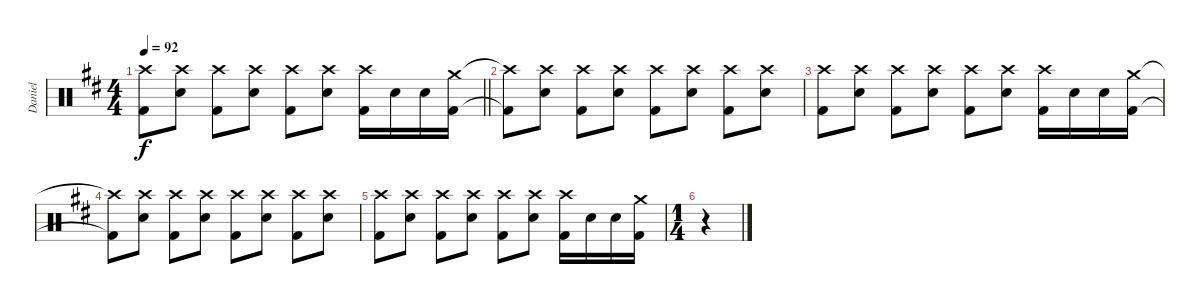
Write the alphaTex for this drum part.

\track ("Daniel" "Daniel") {instrument percussion}
\staff {score}
\articulation defaults
\ts (4 4)
\tempo 92
\clef neutral
\barLineRight lightlight
\ks bminor
("Crash high (hit)" "Kick (hit) 2").8{dy f} ("Crash high (hit)" "Electric Snare (hit)").8 ("Crash high (hit)" "Kick (hit) 2").8 ("Crash high (hit)" "Electric Snare (hit)").8 ("Crash high (hit)" "Kick (hit) 2").8 ("Crash high (hit)" "Electric Snare (hit)").8 ("Crash high (hit)" "Kick (hit) 2").16 "Electric Snare (hit)".16 "Electric Snare (hit)".16 ("Crash medium (hit)" "Kick (hit) 2").16 |
("Crash high (hit)"{t} "Kick (hit) 2"{t}).8 ("Crash high (hit)" "Electric Snare (hit)").8 ("Crash high (hit)" "Kick (hit) 2").8 ("Crash high (hit)" "Electric Snare (hit)").8 ("Crash high (hit)" "Kick (hit) 2").8 ("Crash high (hit)" "Electric Snare (hit)").8 ("Crash high (hit)" "Kick (hit) 2").8 ("Crash high (hit)" "Electric Snare (hit)").8 |
("Crash high (hit)" "Kick (hit) 2").8 ("Crash high (hit)" "Electric Snare (hit)").8 ("Crash high (hit)" "Kick (hit) 2").8 ("Crash high (hit)" "Electric Snare (hit)").8 ("Crash high (hit)" "Kick (hit) 2").8 ("Crash high (hit)" "Electric Snare (hit)").8 ("Crash high (hit)" "Kick (hit) 2").16 "Electric Snare (hit)".16 "Electric Snare (hit)".16 ("Crash medium (hit)" "Kick (hit) 2").16 |
("Crash high (hit)"{t} "Kick (hit) 2"{t}).8 ("Crash high (hit)" "Electric Snare (hit)").8 ("Crash high (hit)" "Kick (hit) 2").8 ("Crash high (hit)" "Electric Snare (hit)").8 ("Crash high (hit)" "Kick (hit) 2").8 ("Crash high (hit)" "Electric Snare (hit)").8 ("Crash high (hit)" "Kick (hit) 2").8 ("Crash high (hit)" "Electric Snare (hit)").8 |
("Crash high (hit)" "Kick (hit) 2").8 ("Crash high (hit)" "Electric Snare (hit)").8 ("Crash high (hit)" "Kick (hit) 2").8 ("Crash high (hit)" "Electric Snare (hit)").8 ("Crash high (hit)" "Kick (hit) 2").8 ("Crash high (hit)" "Electric Snare (hit)").8 ("Crash high (hit)" "Kick (hit) 2").16 "Electric Snare (hit)".16 "Electric Snare (hit)".16 ("Crash medium (hit)" "Kick (hit) 2").16 |
\ts (1 4)
r.4
